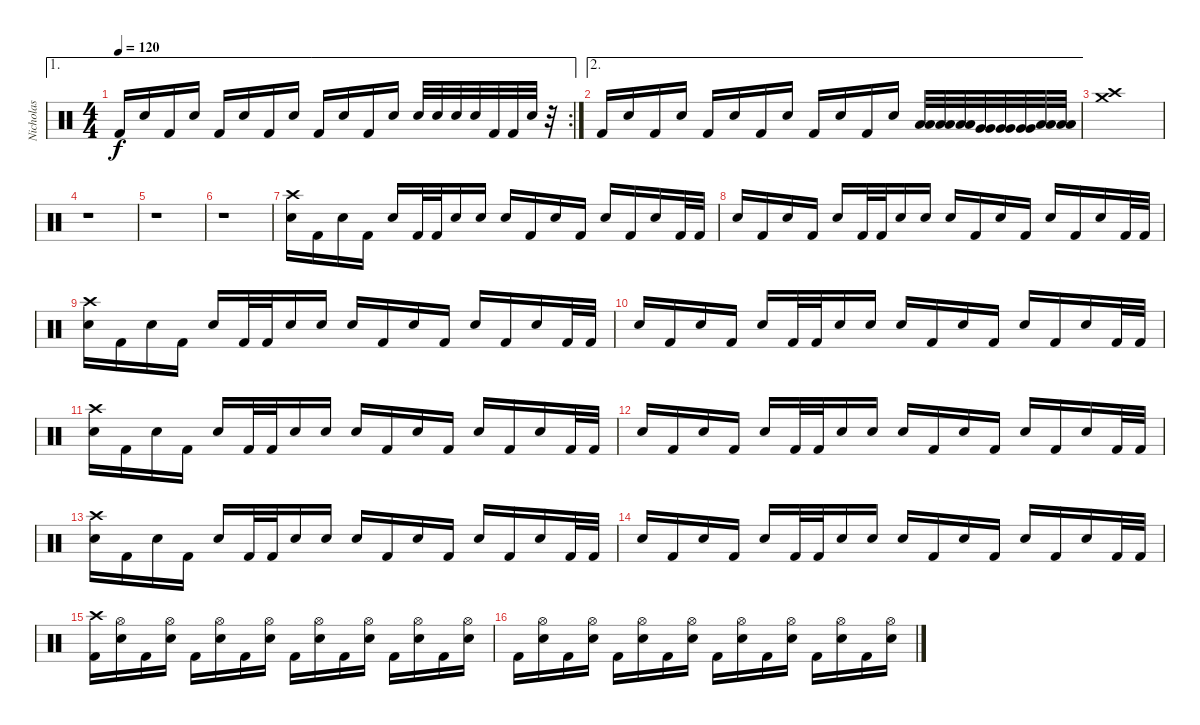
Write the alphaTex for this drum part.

\track ("Nicholas" "Nicholas") {instrument percussion}
\staff {score}
\articulation defaults
\ae 1
\rc 2
\ts (4 4)
\tempo 120
\clef neutral
\ks c "Kick (hit) 2".16{dy f} "Electric Snare (hit)".16 "Kick (hit) 2".16 "Electric Snare (hit)".16 "Kick (hit) 2".16 "Electric Snare (hit)".16 "Kick (hit) 2".16 "Electric Snare (hit)".16 "Kick (hit) 2".16 "Electric Snare (hit)".16 "Kick (hit) 2".16 "Electric Snare (hit)".16 "Electric Snare (hit)".32 "Electric Snare (hit)".32 "Electric Snare (hit)".32 "Electric Snare (hit)".32 "Kick (hit) 2".32 "Kick (hit) 2".32 "Electric Snare (hit)".32
r.32 |
\ae 2 "Kick (hit) 2".16 "Electric Snare (hit)".16 "Kick (hit) 2".16 "Electric Snare (hit)".16 "Kick (hit) 2".16 "Electric Snare (hit)".16 "Kick (hit) 2".16 "Electric Snare (hit)".16 "Kick (hit) 2".16 "Electric Snare (hit)".16 "Kick (hit) 2".16 "Electric Snare (hit)".16
("Low Tom (hit)" "Low Tom (hit)").32 ("Low Tom (hit)" "Low Tom (hit)").32 ("Low Tom (hit)" "Low Tom (hit)").32 ("Very Low Tom (hit)" "Very Low Tom (hit)").32 ("Very Low Tom (hit)" "Very Low Tom (hit)").32 ("Very Low Tom (hit)" "Very Low Tom (hit)").32 ("Low Floor Tom (hit)" "Low Floor Tom (hit)").32 ("Low Floor Tom (hit)" "Low Floor Tom (hit)").32 |
("Crash high (hit)" "Crash medium (hit)").1 |
r.1 |
r.1 |
r.1 |
("Electric Snare (hit)" "Crash high (hit)").16 "Kick (hit) 2".16 "Electric Snare (hit)".16 "Kick (hit) 2".16 "Electric Snare (hit)".16 "Kick (hit) 2".32 "Kick (hit) 2".32 "Electric Snare (hit)".16 "Electric Snare (hit)".16 "Electric Snare (hit)".16 "Kick (hit) 2".16 "Electric Snare (hit)".16 "Kick (hit) 2".16 "Electric Snare (hit)".16 "Kick (hit) 2".16 "Electric Snare (hit)".16 "Kick (hit) 2".32 "Kick (hit) 2".32 |
"Electric Snare (hit)".16 "Kick (hit) 2".16 "Electric Snare (hit)".16 "Kick (hit) 2".16 "Electric Snare (hit)".16 "Kick (hit) 2".32 "Kick (hit) 2".32 "Electric Snare (hit)".16 "Electric Snare (hit)".16 "Electric Snare (hit)".16 "Kick (hit) 2".16 "Electric Snare (hit)".16 "Kick (hit) 2".16 "Electric Snare (hit)".16 "Kick (hit) 2".16 "Electric Snare (hit)".16 "Kick (hit) 2".32 "Kick (hit) 2".32 |
("Electric Snare (hit)" "Crash high (hit)").16 "Kick (hit) 2".16 "Electric Snare (hit)".16 "Kick (hit) 2".16 "Electric Snare (hit)".16 "Kick (hit) 2".32 "Kick (hit) 2".32 "Electric Snare (hit)".16 "Electric Snare (hit)".16 "Electric Snare (hit)".16 "Kick (hit) 2".16 "Electric Snare (hit)".16 "Kick (hit) 2".16 "Electric Snare (hit)".16 "Kick (hit) 2".16 "Electric Snare (hit)".16 "Kick (hit) 2".32 "Kick (hit) 2".32 |
"Electric Snare (hit)".16 "Kick (hit) 2".16 "Electric Snare (hit)".16 "Kick (hit) 2".16 "Electric Snare (hit)".16 "Kick (hit) 2".32 "Kick (hit) 2".32 "Electric Snare (hit)".16 "Electric Snare (hit)".16 "Electric Snare (hit)".16 "Kick (hit) 2".16 "Electric Snare (hit)".16 "Kick (hit) 2".16 "Electric Snare (hit)".16 "Kick (hit) 2".16 "Electric Snare (hit)".16 "Kick (hit) 2".32 "Kick (hit) 2".32 |
("Electric Snare (hit)" "Crash high (hit)").16 "Kick (hit) 2".16 "Electric Snare (hit)".16 "Kick (hit) 2".16 "Electric Snare (hit)".16 "Kick (hit) 2".32 "Kick (hit) 2".32 "Electric Snare (hit)".16 "Electric Snare (hit)".16 "Electric Snare (hit)".16 "Kick (hit) 2".16 "Electric Snare (hit)".16 "Kick (hit) 2".16 "Electric Snare (hit)".16 "Kick (hit) 2".16 "Electric Snare (hit)".16 "Kick (hit) 2".32 "Kick (hit) 2".32 |
"Electric Snare (hit)".16 "Kick (hit) 2".16 "Electric Snare (hit)".16 "Kick (hit) 2".16 "Electric Snare (hit)".16 "Kick (hit) 2".32 "Kick (hit) 2".32 "Electric Snare (hit)".16 "Electric Snare (hit)".16 "Electric Snare (hit)".16 "Kick (hit) 2".16 "Electric Snare (hit)".16 "Kick (hit) 2".16 "Electric Snare (hit)".16 "Kick (hit) 2".16 "Electric Snare (hit)".16 "Kick (hit) 2".32 "Kick (hit) 2".32 |
("Electric Snare (hit)" "Crash high (hit)").16 "Kick (hit) 2".16 "Electric Snare (hit)".16 "Kick (hit) 2".16 "Electric Snare (hit)".16 "Kick (hit) 2".32 "Kick (hit) 2".32 "Electric Snare (hit)".16 "Electric Snare (hit)".16 "Electric Snare (hit)".16 "Kick (hit) 2".16 "Electric Snare (hit)".16 "Kick (hit) 2".16 "Electric Snare (hit)".16 "Kick (hit) 2".16 "Electric Snare (hit)".16 "Kick (hit) 2".32 "Kick (hit) 2".32 |
"Electric Snare (hit)".16 "Kick (hit) 2".16 "Electric Snare (hit)".16 "Kick (hit) 2".16 "Electric Snare (hit)".16 "Kick (hit) 2".32 "Kick (hit) 2".32 "Electric Snare (hit)".16 "Electric Snare (hit)".16 "Electric Snare (hit)".16 "Kick (hit) 2".16 "Electric Snare (hit)".16 "Kick (hit) 2".16 "Electric Snare (hit)".16 "Kick (hit) 2".16 "Electric Snare (hit)".16 "Kick (hit) 2".32 "Kick (hit) 2".32 |
("Kick (hit) 2" "Crash high (hit)").16 ("Electric Snare (hit)" "Hi-Hat (open)").16 "Kick (hit) 2".16 ("Electric Snare (hit)" "Hi-Hat (open)").16 "Kick (hit) 2".16 ("Electric Snare (hit)" "Hi-Hat (open)").16 "Kick (hit) 2".16 ("Electric Snare (hit)" "Hi-Hat (open)").16 "Kick (hit) 2".16 ("Electric Snare (hit)" "Hi-Hat (open)").16 "Kick (hit) 2".16 ("Electric Snare (hit)" "Hi-Hat (open)").16 "Kick (hit) 2".16 ("Electric Snare (hit)" "Hi-Hat (open)").16 "Kick (hit) 2".16 ("Electric Snare (hit)" "Hi-Hat (open)").16 |
"Kick (hit) 2".16 ("Electric Snare (hit)" "Hi-Hat (open)").16 "Kick (hit) 2".16 ("Electric Snare (hit)" "Hi-Hat (open)").16 "Kick (hit) 2".16 ("Electric Snare (hit)" "Hi-Hat (open)").16 "Kick (hit) 2".16 ("Electric Snare (hit)" "Hi-Hat (open)").16 "Kick (hit) 2".16 ("Electric Snare (hit)" "Hi-Hat (open)").16 "Kick (hit) 2".16 ("Electric Snare (hit)" "Hi-Hat (open)").16 "Kick (hit) 2".16 ("Electric Snare (hit)" "Hi-Hat (open)").16 "Kick (hit) 2".16 ("Electric Snare (hit)" "Hi-Hat (open)").16
